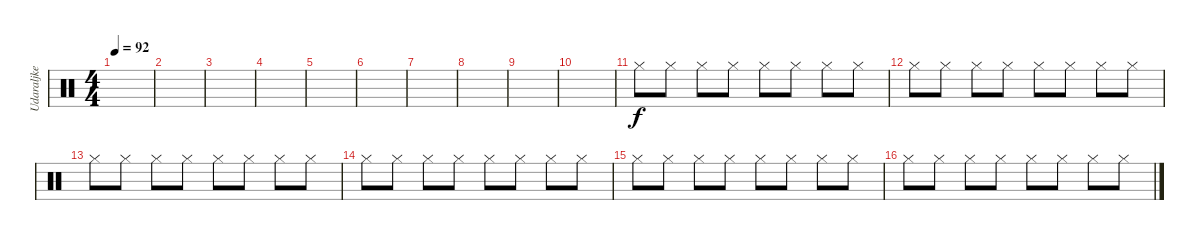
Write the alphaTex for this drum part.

\track ("Udaraljke" "Udaraljke") {instrument percussion}
\staff {score}
\articulation defaults
\ts (4 4)
\tempo 92
\clef neutral
\ks c
|
|
|
|
|
|
|
|
|
|
"Hi-Hat (closed)".8 "Hi-Hat (closed)".8 "Hi-Hat (closed)".8 "Hi-Hat (closed)".8 "Hi-Hat (closed)".8 "Hi-Hat (closed)".8 "Hi-Hat (closed)".8 "Hi-Hat (closed)".8 |
"Hi-Hat (closed)".8 "Hi-Hat (closed)".8 "Hi-Hat (closed)".8 "Hi-Hat (closed)".8 "Hi-Hat (closed)".8 "Hi-Hat (closed)".8 "Hi-Hat (closed)".8 "Hi-Hat (closed)".8 |
"Hi-Hat (closed)".8 "Hi-Hat (closed)".8 "Hi-Hat (closed)".8 "Hi-Hat (closed)".8 "Hi-Hat (closed)".8 "Hi-Hat (closed)".8 "Hi-Hat (closed)".8 "Hi-Hat (closed)".8 |
"Hi-Hat (closed)".8 "Hi-Hat (closed)".8 "Hi-Hat (closed)".8 "Hi-Hat (closed)".8 "Hi-Hat (closed)".8 "Hi-Hat (closed)".8 "Hi-Hat (closed)".8 "Hi-Hat (closed)".8 |
"Hi-Hat (closed)".8 "Hi-Hat (closed)".8 "Hi-Hat (closed)".8 "Hi-Hat (closed)".8 "Hi-Hat (closed)".8 "Hi-Hat (closed)".8 "Hi-Hat (closed)".8 "Hi-Hat (closed)".8 |
"Hi-Hat (closed)".8 "Hi-Hat (closed)".8 "Hi-Hat (closed)".8 "Hi-Hat (closed)".8 "Hi-Hat (closed)".8 "Hi-Hat (closed)".8 "Hi-Hat (closed)".8 "Hi-Hat (closed)".8
